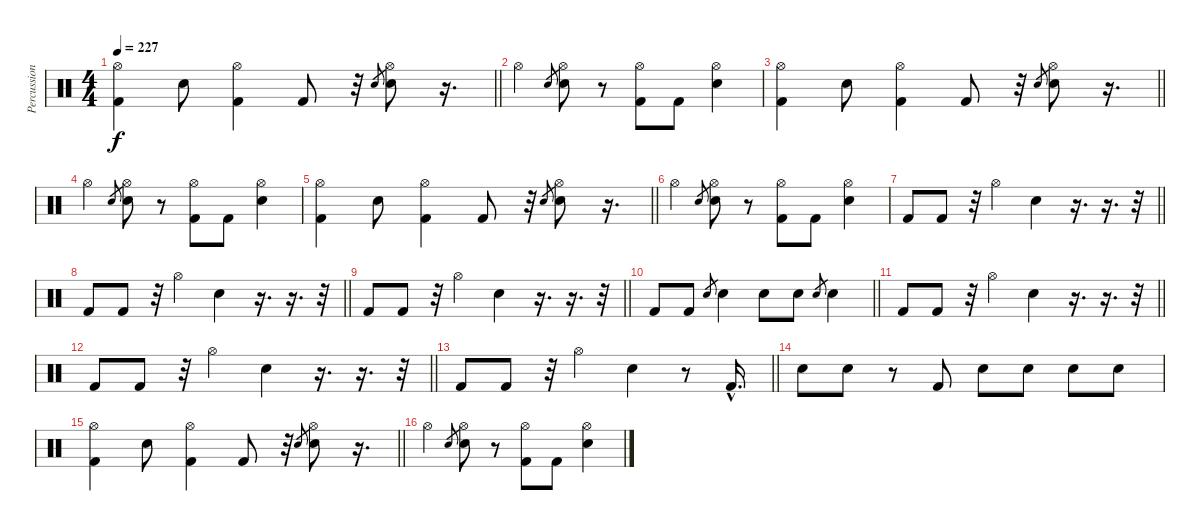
\track ("Percussion" "Percussion") {instrument percussion}
\staff {score}
\articulation defaults
\ts (4 4)
\tempo 227
\clef neutral
\barLineRight lightlight
\ks c
("Hi-Hat (open)" "Kick (hit) 2").4{dy f} "Snare (hit) 2".8 ("Hi-Hat (open)" "Kick (hit) 2").4 "Kick (hit) 2".8 r.32 "Snare (hit) 2".8{gr} ("Hi-Hat (open)" "Snare (hit) 2").8 r.16{d} |
"Hi-Hat (open)".4 "Snare (hit) 2".8{gr} ("Hi-Hat (open)" "Snare (hit) 2").8 r.8 ("Hi-Hat (open)" "Kick (hit) 2").8 "Kick (hit) 2".8 ("Hi-Hat (open)" "Snare (hit) 2").4 |
\barLineRight lightlight
("Hi-Hat (open)" "Kick (hit) 2").4 "Snare (hit) 2".8 ("Hi-Hat (open)" "Kick (hit) 2").4 "Kick (hit) 2".8 r.32 "Snare (hit) 2".8{gr} ("Hi-Hat (open)" "Snare (hit) 2").8 r.16{d} |
"Hi-Hat (open)".4 "Snare (hit) 2".8{gr} ("Hi-Hat (open)" "Snare (hit) 2").8 r.8 ("Hi-Hat (open)" "Kick (hit) 2").8 "Kick (hit) 2".8 ("Hi-Hat (open)" "Snare (hit) 2").4 |
\barLineRight lightlight
("Hi-Hat (open)" "Kick (hit) 2").4 "Snare (hit) 2".8 ("Hi-Hat (open)" "Kick (hit) 2").4 "Kick (hit) 2".8 r.32 "Snare (hit) 2".8{gr} ("Hi-Hat (open)" "Snare (hit) 2").8 r.16{d} |
"Hi-Hat (open)".4 "Snare (hit) 2".8{gr} ("Hi-Hat (open)" "Snare (hit) 2").8 r.8 ("Hi-Hat (open)" "Kick (hit) 2").8 "Kick (hit) 2".8 ("Hi-Hat (open)" "Snare (hit) 2").4 |
\barLineRight lightlight "Kick (hit) 2".8 "Kick (hit) 2".8
r.32 "Hi-Hat (open)".4 "Snare (hit) 2".4 r.16{d} r.16{d} r.32 |
\barLineRight lightlight "Kick (hit) 2".8 "Kick (hit) 2".8
r.32 "Hi-Hat (open)".4 "Snare (hit) 2".4 r.16{d} r.16{d} r.32 |
\barLineRight lightlight "Kick (hit) 2".8 "Kick (hit) 2".8
r.32 "Hi-Hat (open)".4 "Snare (hit) 2".4 r.16{d} r.16{d} r.32 |
\barLineRight lightlight "Kick (hit) 2".8 "Kick (hit) 2".8 "Snare (hit) 2".8{gr} "Snare (hit) 2".4 "Snare (hit) 2".8 "Snare (hit) 2".8 "Snare (hit) 2".8{gr} "Snare (hit) 2".4
|
\barLineRight lightlight "Kick (hit) 2".8 "Kick (hit) 2".8
r.32 "Hi-Hat (open)".4 "Snare (hit) 2".4 r.16{d} r.16{d} r.32 |
\barLineRight lightlight "Kick (hit) 2".8 "Kick (hit) 2".8
r.32 "Hi-Hat (open)".4 "Snare (hit) 2".4 r.16{d} r.16{d} r.32 |
\barLineRight lightlight "Kick (hit) 2".8 "Kick (hit) 2".8
r.32 "Hi-Hat (open)".4 "Snare (hit) 2".4 r.8 "Kick (hit) 2"{hac}.16{d} |
"Snare (hit) 2".8 "Snare (hit) 2".8 r.8 "Kick (hit) 2".8 "Snare (hit) 2".8 "Snare (hit) 2".8 "Snare (hit) 2".8 "Snare (hit) 2".8 |
\barLineRight lightlight
("Hi-Hat (open)" "Kick (hit) 2").4 "Snare (hit) 2".8 ("Hi-Hat (open)" "Kick (hit) 2").4 "Kick (hit) 2".8 r.32 "Snare (hit) 2".8{gr} ("Hi-Hat (open)" "Snare (hit) 2").8 r.16{d} |
"Hi-Hat (open)".4 "Snare (hit) 2".8{gr} ("Hi-Hat (open)" "Snare (hit) 2").8 r.8 ("Hi-Hat (open)" "Kick (hit) 2").8 "Kick (hit) 2".8 ("Hi-Hat (open)" "Snare (hit) 2").4
